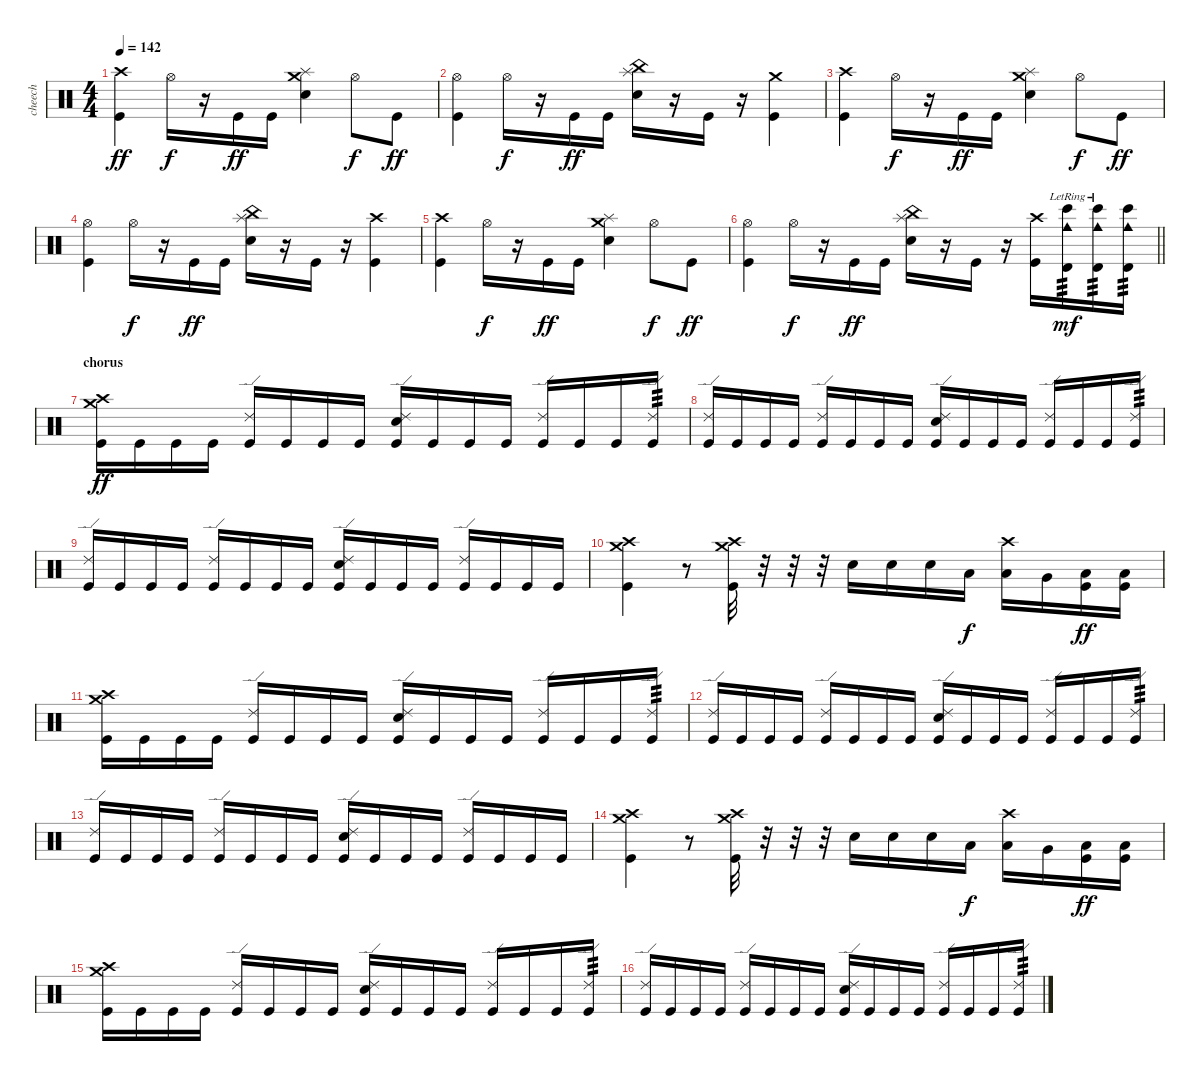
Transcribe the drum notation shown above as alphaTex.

\track ("cheech" "cheech") {instrument percussion}
\staff {score}
\articulation defaults
\ts (4 4)
\tempo 142
\clef neutral
\ks c
("Crash high (hit)" "Kick (hit)").4{dy ff} "Hi-Hat (open)".16{dy f} r.16 "Kick (hit)".16{dy ff} "Kick (hit)".16 ("Crash medium (hit)" "Splash (hit)" "Electric Snare (hit)").4 "Hi-Hat (open)".8{dy f} "Kick (hit)".8{dy ff} |
("Hi-Hat (open)" "Kick (hit)").4 "Hi-Hat (open)".16{dy f} r.16 "Kick (hit)".16{dy ff} "Kick (hit)".16 ("China (hit)" "Splash (hit)" "Electric Snare (hit)").16 r.16 "Kick (hit)".16 r.16 ("Crash medium (hit)" "Kick (hit)").4 |
("Crash high (hit)" "Kick (hit)").4 "Hi-Hat (open)".16{dy f} r.16 "Kick (hit)".16{dy ff} "Kick (hit)".16 ("Crash medium (hit)" "Splash (hit)" "Electric Snare (hit)").4 "Hi-Hat (open)".8{dy f} "Kick (hit)".8{dy ff} |
("Hi-Hat (open)" "Kick (hit)").4 "Hi-Hat (open)".16{dy f} r.16 "Kick (hit)".16{dy ff} "Kick (hit)".16 ("China (hit)" "Splash (hit)" "Electric Snare (hit)").16 r.16 "Kick (hit)".16 r.16 ("Crash high (hit)" "Kick (hit)").4 |
("Crash high (hit)" "Kick (hit)").4 "Hi-Hat (open)".16{dy f} r.16 "Kick (hit)".16{dy ff} "Kick (hit)".16 ("Crash medium (hit)" "Splash (hit)" "Electric Snare (hit)").4 "Hi-Hat (open)".8{dy f} "Kick (hit)".8{dy ff} |
\barLineRight lightlight
("Hi-Hat (open)" "Kick (hit)").4 "Hi-Hat (open)".16{dy f} r.16 "Kick (hit)".16{dy ff} "Kick (hit)".16 ("China (hit)" "Splash (hit)" "Electric Snare (hit)").16 r.16 "Kick (hit)".16 r.16 ("Crash high (hit)" "Kick (hit)").16 ("Cowbell medium (hit)"{lr} "Timbale high (hit)" "Bongo High (hit)").16{tp 3 dy mf} ("Cowbell medium (hit)"{lr} "Timbale high (hit)" "Bongo High (hit)").16{tp 3} ("Cowbell medium (hit)" "Timbale high (hit)" "Bongo High (hit)").16{tp 3} |
\section ("" "chorus")
("Crash high (hit)" "Crash medium (hit)" "Kick (hit)").16{dy ff} "Kick (hit)".16 "Kick (hit)".16 "Kick (hit)".16 ("Ride (edge) 2" "Kick (hit)").16 "Kick (hit)".16 "Kick (hit)".16 "Kick (hit)".16 ("Ride (edge) 2" "Electric Snare (hit)" "Kick (hit)").16 "Kick (hit)".16 "Kick (hit)".16 "Kick (hit)".16 ("Ride (edge) 2" "Kick (hit)").16 "Kick (hit)".16 "Kick (hit)".16 ("Ride (edge) 2" "Kick (hit)").16{tp 3} |
("Ride (edge) 2" "Kick (hit)").16 "Kick (hit)".16 "Kick (hit)".16 "Kick (hit)".16 ("Ride (edge) 2" "Kick (hit)").16 "Kick (hit)".16 "Kick (hit)".16 "Kick (hit)".16 ("Ride (edge) 2" "Electric Snare (hit)" "Kick (hit)").16 "Kick (hit)".16 "Kick (hit)".16 "Kick (hit)".16 ("Ride (edge) 2" "Kick (hit)").16 "Kick (hit)".16 "Kick (hit)".16 ("Ride (edge) 2" "Kick (hit)").16{tp 3} |
("Ride (edge) 2" "Kick (hit)").16 "Kick (hit)".16 "Kick (hit)".16 "Kick (hit)".16 ("Ride (edge) 2" "Kick (hit)").16 "Kick (hit)".16 "Kick (hit)".16 "Kick (hit)".16 ("Ride (edge) 2" "Electric Snare (hit)" "Kick (hit)").16 "Kick (hit)".16 "Kick (hit)".16 "Kick (hit)".16 ("Ride (edge) 2" "Kick (hit)").16 "Kick (hit)".16 "Kick (hit)".16 "Kick (hit)".16 |
("Crash high (hit)" "Crash medium (hit)" "Kick (hit)").4 r.8 ("Crash medium (hit)" "Crash high (hit)" "Kick (hit)").32 r.32 r.32 r.32 "Electric Snare (hit)".16 "Electric Snare (hit)".16 "Electric Snare (hit)".16 "Low Tom (hit)".16{dy f} ("Crash high (hit)" "Low Tom (hit)").16 "Very Low Tom (hit)".16 ("Low Floor Tom (hit)" "Kick (hit)").16{dy ff} ("Low Floor Tom (hit)" "Kick (hit)").16 |
("Crash high (hit)" "Crash medium (hit)" "Kick (hit)").16 "Kick (hit)".16 "Kick (hit)".16 "Kick (hit)".16 ("Ride (edge) 2" "Kick (hit)").16 "Kick (hit)".16 "Kick (hit)".16 "Kick (hit)".16 ("Ride (edge) 2" "Electric Snare (hit)" "Kick (hit)").16 "Kick (hit)".16 "Kick (hit)".16 "Kick (hit)".16 ("Ride (edge) 2" "Kick (hit)").16 "Kick (hit)".16 "Kick (hit)".16 ("Ride (edge) 2" "Kick (hit)").16{tp 3} |
("Ride (edge) 2" "Kick (hit)").16 "Kick (hit)".16 "Kick (hit)".16 "Kick (hit)".16 ("Ride (edge) 2" "Kick (hit)").16 "Kick (hit)".16 "Kick (hit)".16 "Kick (hit)".16 ("Ride (edge) 2" "Electric Snare (hit)" "Kick (hit)").16 "Kick (hit)".16 "Kick (hit)".16 "Kick (hit)".16 ("Ride (edge) 2" "Kick (hit)").16 "Kick (hit)".16 "Kick (hit)".16 ("Ride (edge) 2" "Kick (hit)").16{tp 3} |
("Ride (edge) 2" "Kick (hit)").16 "Kick (hit)".16 "Kick (hit)".16 "Kick (hit)".16 ("Ride (edge) 2" "Kick (hit)").16 "Kick (hit)".16 "Kick (hit)".16 "Kick (hit)".16 ("Ride (edge) 2" "Electric Snare (hit)" "Kick (hit)").16 "Kick (hit)".16 "Kick (hit)".16 "Kick (hit)".16 ("Ride (edge) 2" "Kick (hit)").16 "Kick (hit)".16 "Kick (hit)".16 "Kick (hit)".16 |
("Crash high (hit)" "Crash medium (hit)" "Kick (hit)").4 r.8 ("Crash medium (hit)" "Crash high (hit)" "Kick (hit)").32 r.32 r.32 r.32 "Electric Snare (hit)".16 "Electric Snare (hit)".16 "Electric Snare (hit)".16 "Low Tom (hit)".16{dy f} ("Crash high (hit)" "Low Tom (hit)").16 "Very Low Tom (hit)".16 ("Low Floor Tom (hit)" "Kick (hit)").16{dy ff} ("Low Floor Tom (hit)" "Kick (hit)").16 |
("Crash high (hit)" "Crash medium (hit)" "Kick (hit)").16 "Kick (hit)".16 "Kick (hit)".16 "Kick (hit)".16 ("Ride (edge) 2" "Kick (hit)").16 "Kick (hit)".16 "Kick (hit)".16 "Kick (hit)".16 ("Ride (edge) 2" "Electric Snare (hit)" "Kick (hit)").16 "Kick (hit)".16 "Kick (hit)".16 "Kick (hit)".16 ("Ride (edge) 2" "Kick (hit)").16 "Kick (hit)".16 "Kick (hit)".16 ("Ride (edge) 2" "Kick (hit)").16{tp 3} |
("Ride (edge) 2" "Kick (hit)").16 "Kick (hit)".16 "Kick (hit)".16 "Kick (hit)".16 ("Ride (edge) 2" "Kick (hit)").16 "Kick (hit)".16 "Kick (hit)".16 "Kick (hit)".16 ("Ride (edge) 2" "Electric Snare (hit)" "Kick (hit)").16 "Kick (hit)".16 "Kick (hit)".16 "Kick (hit)".16 ("Ride (edge) 2" "Kick (hit)").16 "Kick (hit)".16 "Kick (hit)".16 ("Ride (edge) 2" "Kick (hit)").16{tp 3}
